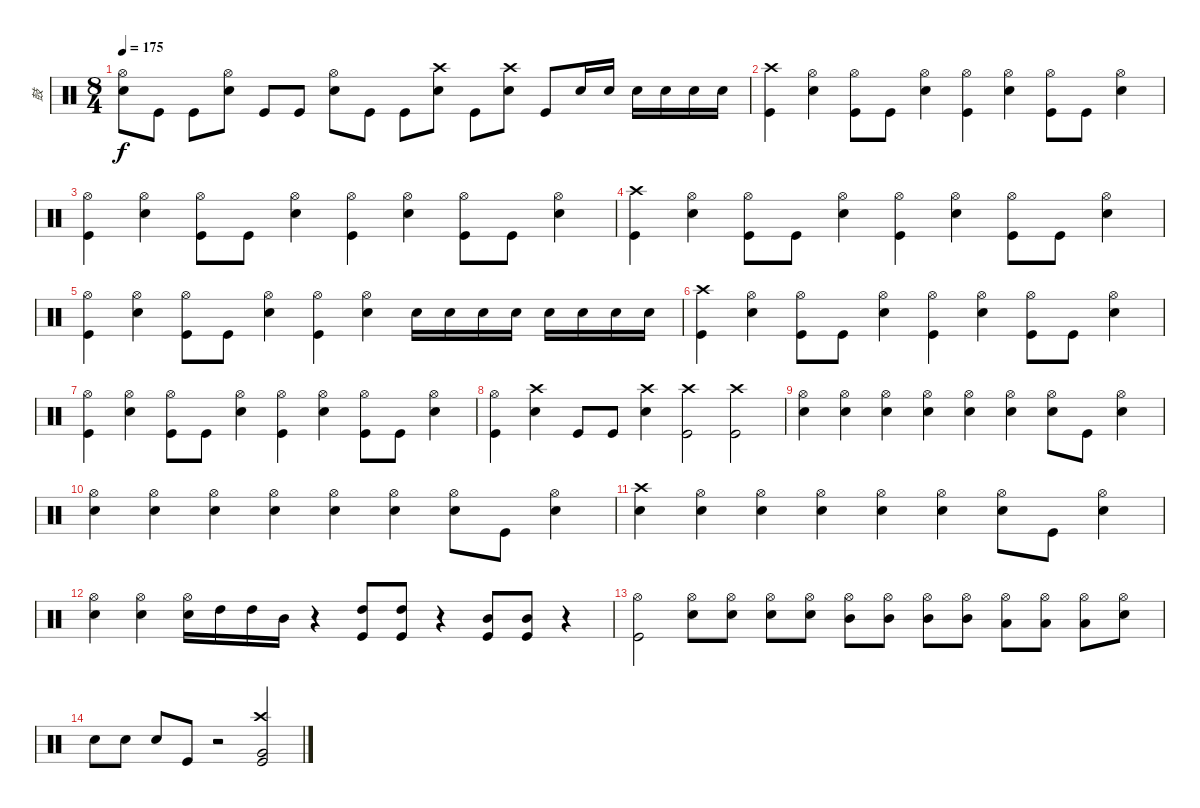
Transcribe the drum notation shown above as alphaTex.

\track ("鼓" "鼓") {instrument percussion}
\staff {score}
\articulation defaults
\ts (8 4)
\tempo 175
\clef neutral
\ks c
("Hi-Hat (open)" "Electric Snare (hit)").8{dy f} "Kick (hit)".8 "Kick (hit)".8 ("Hi-Hat (open)" "Electric Snare (hit)").8 "Kick (hit)".8 "Kick (hit)".8 ("Hi-Hat (open)" "Electric Snare (hit)").8 "Kick (hit)".8 "Kick (hit)".8 ("Crash high (hit)" "Electric Snare (hit)").8 "Kick (hit)".8 ("Crash high (hit)" "Electric Snare (hit)").8 "Kick (hit)".8 "Electric Snare (hit)".16 "Electric Snare (hit)".16 "Electric Snare (hit)".16 "Electric Snare (hit)".16 "Electric Snare (hit)".16 "Electric Snare (hit)".16 |
("Crash high (hit)" "Kick (hit)").4 ("Hi-Hat (open)" "Electric Snare (hit)").4 ("Hi-Hat (open)" "Kick (hit)").8 "Kick (hit)".8 ("Hi-Hat (open)" "Electric Snare (hit)").4 ("Hi-Hat (open)" "Kick (hit)").4 ("Hi-Hat (open)" "Electric Snare (hit)").4 ("Hi-Hat (open)" "Kick (hit)").8 "Kick (hit)".8 ("Hi-Hat (open)" "Electric Snare (hit)").4 |
("Hi-Hat (open)" "Kick (hit)").4 ("Hi-Hat (open)" "Electric Snare (hit)").4 ("Hi-Hat (open)" "Kick (hit)").8 "Kick (hit)".8 ("Hi-Hat (open)" "Electric Snare (hit)").4 ("Hi-Hat (open)" "Kick (hit)").4 ("Hi-Hat (open)" "Electric Snare (hit)").4 ("Hi-Hat (open)" "Kick (hit)").8 "Kick (hit)".8 ("Hi-Hat (open)" "Electric Snare (hit)").4 |
("Crash high (hit)" "Kick (hit)").4 ("Hi-Hat (open)" "Electric Snare (hit)").4 ("Hi-Hat (open)" "Kick (hit)").8 "Kick (hit)".8 ("Hi-Hat (open)" "Electric Snare (hit)").4 ("Hi-Hat (open)" "Kick (hit)").4 ("Hi-Hat (open)" "Electric Snare (hit)").4 ("Hi-Hat (open)" "Kick (hit)").8 "Kick (hit)".8 ("Hi-Hat (open)" "Electric Snare (hit)").4 |
("Hi-Hat (open)" "Kick (hit)").4 ("Hi-Hat (open)" "Electric Snare (hit)").4 ("Hi-Hat (open)" "Kick (hit)").8 "Kick (hit)".8 ("Hi-Hat (open)" "Electric Snare (hit)").4 ("Hi-Hat (open)" "Kick (hit)").4 ("Hi-Hat (open)" "Electric Snare (hit)").4 "Electric Snare (hit)".16 "Electric Snare (hit)".16 "Electric Snare (hit)".16 "Electric Snare (hit)".16 "Electric Snare (hit)".16 "Electric Snare (hit)".16 "Electric Snare (hit)".16 "Electric Snare (hit)".16 |
("Crash high (hit)" "Kick (hit)").4 ("Hi-Hat (open)" "Electric Snare (hit)").4 ("Hi-Hat (open)" "Kick (hit)").8 "Kick (hit)".8 ("Hi-Hat (open)" "Electric Snare (hit)").4 ("Hi-Hat (open)" "Kick (hit)").4 ("Hi-Hat (open)" "Electric Snare (hit)").4 ("Hi-Hat (open)" "Kick (hit)").8 "Kick (hit)".8 ("Hi-Hat (open)" "Electric Snare (hit)").4 |
("Hi-Hat (open)" "Kick (hit)").4 ("Hi-Hat (open)" "Electric Snare (hit)").4 ("Hi-Hat (open)" "Kick (hit)").8 "Kick (hit)".8 ("Hi-Hat (open)" "Electric Snare (hit)").4 ("Hi-Hat (open)" "Kick (hit)").4 ("Hi-Hat (open)" "Electric Snare (hit)").4 ("Hi-Hat (open)" "Kick (hit)").8 "Kick (hit)".8 ("Hi-Hat (open)" "Electric Snare (hit)").4 |
("Hi-Hat (open)" "Kick (hit)").4 ("Crash high (hit)" "Electric Snare (hit)").4 "Kick (hit)".8 "Kick (hit)".8 ("Crash high (hit)" "Electric Snare (hit)").4 ("Crash high (hit)" "Kick (hit)").2 ("Crash high (hit)" "Kick (hit)").2 |
("Hi-Hat (open)" "Electric Snare (hit)").4 ("Hi-Hat (open)" "Electric Snare (hit)").4 ("Hi-Hat (open)" "Electric Snare (hit)").4 ("Hi-Hat (open)" "Electric Snare (hit)").4 ("Hi-Hat (open)" "Electric Snare (hit)").4 ("Hi-Hat (open)" "Electric Snare (hit)").4 ("Hi-Hat (open)" "Electric Snare (hit)").8 "Kick (hit)".8 ("Hi-Hat (open)" "Electric Snare (hit)").4 |
("Hi-Hat (open)" "Electric Snare (hit)").4 ("Hi-Hat (open)" "Electric Snare (hit)").4 ("Hi-Hat (open)" "Electric Snare (hit)").4 ("Hi-Hat (open)" "Electric Snare (hit)").4 ("Hi-Hat (open)" "Electric Snare (hit)").4 ("Hi-Hat (open)" "Electric Snare (hit)").4 ("Hi-Hat (open)" "Electric Snare (hit)").8 "Kick (hit)".8 ("Hi-Hat (open)" "Electric Snare (hit)").4 |
("Crash high (hit)" "Electric Snare (hit)").4 ("Hi-Hat (open)" "Electric Snare (hit)").4 ("Hi-Hat (open)" "Electric Snare (hit)").4 ("Hi-Hat (open)" "Electric Snare (hit)").4 ("Hi-Hat (open)" "Electric Snare (hit)").4 ("Hi-Hat (open)" "Electric Snare (hit)").4 ("Hi-Hat (open)" "Electric Snare (hit)").8 "Kick (hit)".8 ("Hi-Hat (open)" "Electric Snare (hit)").4 |
("Hi-Hat (open)" "Electric Snare (hit)").4 ("Hi-Hat (open)" "Electric Snare (hit)").4 ("Hi-Hat (open)" "Electric Snare (hit)").16 "High Tom (hit)".16 "High Tom (hit)".16 "Mid Tom (hit)".16 r.4 ("High Tom (hit)" "Kick (hit)").8 ("High Tom (hit)" "Kick (hit)").8 r.4 ("Mid Tom (hit)" "Kick (hit)").8 ("Mid Tom (hit)" "Kick (hit)").8 r.4 |
("Hi-Hat (open)" "Kick (hit)").2 ("Hi-Hat (open)" "Electric Snare (hit)").8 ("Hi-Hat (open)" "Electric Snare (hit)").8 ("Hi-Hat (open)" "Electric Snare (hit)").8 ("Hi-Hat (open)" "Electric Snare (hit)").8 ("Hi-Hat (open)" "Mid Tom (hit)").8 ("Hi-Hat (open)" "Mid Tom (hit)").8 ("Hi-Hat (open)" "Mid Tom (hit)").8 ("Hi-Hat (open)" "Mid Tom (hit)").8 ("Hi-Hat (open)" "Low Tom (hit)").8 ("Hi-Hat (open)" "Low Tom (hit)").8 ("Hi-Hat (open)" "Low Tom (hit)").8 ("Hi-Hat (open)" "Electric Snare (hit)").8 |
"Electric Snare (hit)".8 "Electric Snare (hit)".8 "Electric Snare (hit)".8 "Kick (hit)".8 r.2 ("Crash high (hit)" "Very Low Tom (hit)" "Kick (hit)").2
